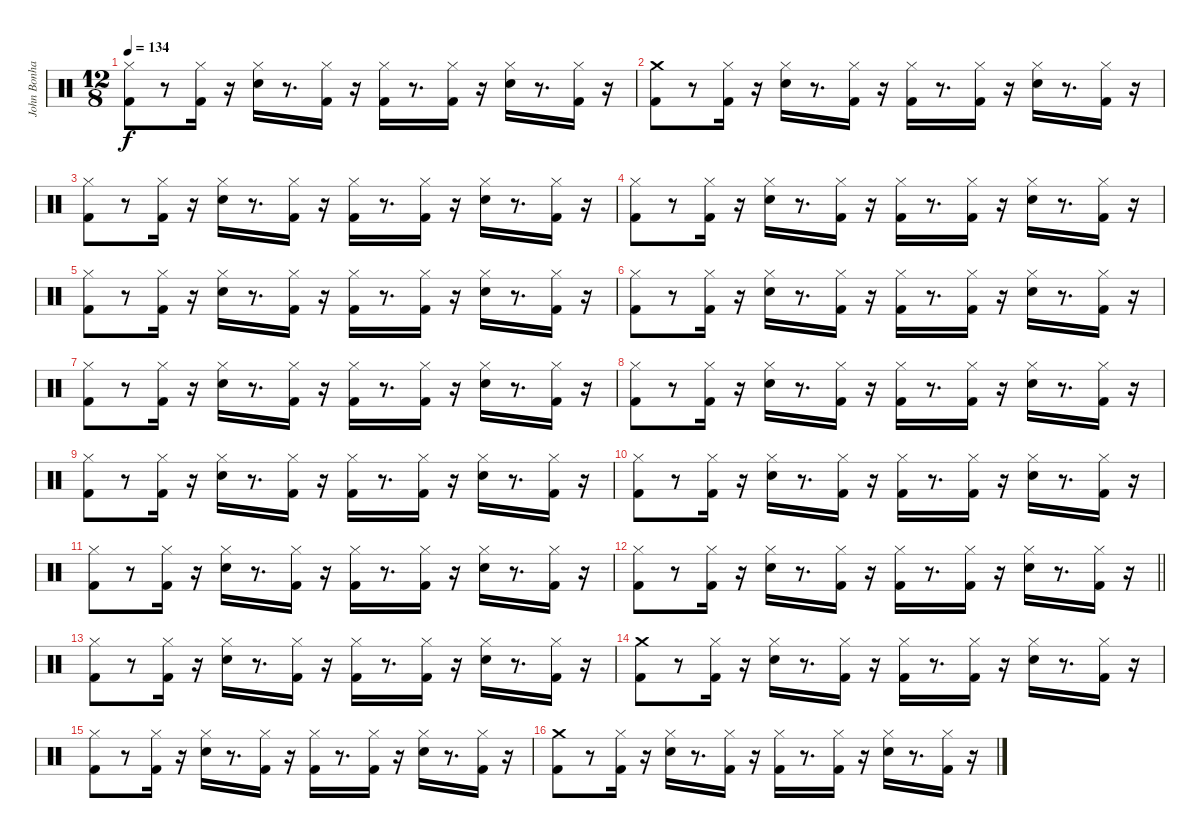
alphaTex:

\track ("John Bonham - Drums" "John Bonha") {instrument percussion}
\staff {score}
\articulation defaults
\ts (12 8)
\tempo 134
\clef neutral
\ks c
("Kick (hit) 2" "Hi-Hat (closed)").8{dy f} r.8 ("Kick (hit) 2" "Hi-Hat (closed)").16 r.16 ("Hi-Hat (closed)" "Electric Snare (hit)").16 r.8{d} ("Hi-Hat (closed)" "Kick (hit) 2").16 r.16 ("Hi-Hat (closed)" "Kick (hit) 2").16 r.8{d} ("Hi-Hat (closed)" "Kick (hit) 2").16 r.16 ("Hi-Hat (closed)" "Electric Snare (hit)").16 r.8{d} ("Hi-Hat (closed)" "Kick (hit) 2").16 r.16 |
("Kick (hit) 2" "Crash medium (hit)").8 r.8 ("Kick (hit) 2" "Hi-Hat (closed)").16 r.16 ("Hi-Hat (closed)" "Electric Snare (hit)").16 r.8{d} ("Hi-Hat (closed)" "Kick (hit) 2").16 r.16 ("Hi-Hat (closed)" "Kick (hit) 2").16 r.8{d} ("Hi-Hat (closed)" "Kick (hit) 2").16 r.16 ("Hi-Hat (closed)" "Electric Snare (hit)").16 r.8{d} ("Hi-Hat (closed)" "Kick (hit) 2").16 r.16 |
("Kick (hit) 2" "Hi-Hat (closed)").8 r.8 ("Kick (hit) 2" "Hi-Hat (closed)").16 r.16 ("Hi-Hat (closed)" "Electric Snare (hit)").16 r.8{d} ("Hi-Hat (closed)" "Kick (hit) 2").16 r.16 ("Hi-Hat (closed)" "Kick (hit) 2").16 r.8{d} ("Hi-Hat (closed)" "Kick (hit) 2").16 r.16 ("Hi-Hat (closed)" "Electric Snare (hit)").16 r.8{d} ("Hi-Hat (closed)" "Kick (hit) 2").16 r.16 |
("Kick (hit) 2" "Hi-Hat (closed)").8 r.8 ("Kick (hit) 2" "Hi-Hat (closed)").16 r.16 ("Hi-Hat (closed)" "Electric Snare (hit)").16 r.8{d} ("Hi-Hat (closed)" "Kick (hit) 2").16 r.16 ("Hi-Hat (closed)" "Kick (hit) 2").16 r.8{d} ("Hi-Hat (closed)" "Kick (hit) 2").16 r.16 ("Hi-Hat (closed)" "Electric Snare (hit)").16 r.8{d} ("Hi-Hat (closed)" "Kick (hit) 2").16 r.16 |
("Kick (hit) 2" "Hi-Hat (closed)").8 r.8 ("Kick (hit) 2" "Hi-Hat (closed)").16 r.16 ("Hi-Hat (closed)" "Electric Snare (hit)").16 r.8{d} ("Hi-Hat (closed)" "Kick (hit) 2").16 r.16 ("Hi-Hat (closed)" "Kick (hit) 2").16 r.8{d} ("Hi-Hat (closed)" "Kick (hit) 2").16 r.16 ("Hi-Hat (closed)" "Electric Snare (hit)").16 r.8{d} ("Hi-Hat (closed)" "Kick (hit) 2").16 r.16 |
("Kick (hit) 2" "Hi-Hat (closed)").8 r.8 ("Kick (hit) 2" "Hi-Hat (closed)").16 r.16 ("Hi-Hat (closed)" "Electric Snare (hit)").16 r.8{d} ("Hi-Hat (closed)" "Kick (hit) 2").16 r.16 ("Hi-Hat (closed)" "Kick (hit) 2").16 r.8{d} ("Hi-Hat (closed)" "Kick (hit) 2").16 r.16 ("Hi-Hat (closed)" "Electric Snare (hit)").16 r.8{d} ("Hi-Hat (closed)" "Kick (hit) 2").16 r.16 |
("Kick (hit) 2" "Hi-Hat (closed)").8 r.8 ("Kick (hit) 2" "Hi-Hat (closed)").16 r.16 ("Hi-Hat (closed)" "Electric Snare (hit)").16 r.8{d} ("Hi-Hat (closed)" "Kick (hit) 2").16 r.16 ("Hi-Hat (closed)" "Kick (hit) 2").16 r.8{d} ("Hi-Hat (closed)" "Kick (hit) 2").16 r.16 ("Hi-Hat (closed)" "Electric Snare (hit)").16 r.8{d} ("Hi-Hat (closed)" "Kick (hit) 2").16 r.16 |
("Kick (hit) 2" "Hi-Hat (closed)").8 r.8 ("Kick (hit) 2" "Hi-Hat (closed)").16 r.16 ("Hi-Hat (closed)" "Electric Snare (hit)").16 r.8{d} ("Hi-Hat (closed)" "Kick (hit) 2").16 r.16 ("Hi-Hat (closed)" "Kick (hit) 2").16 r.8{d} ("Hi-Hat (closed)" "Kick (hit) 2").16 r.16 ("Hi-Hat (closed)" "Electric Snare (hit)").16 r.8{d} ("Hi-Hat (closed)" "Kick (hit) 2").16 r.16 |
("Kick (hit) 2" "Hi-Hat (closed)").8 r.8 ("Kick (hit) 2" "Hi-Hat (closed)").16 r.16 ("Hi-Hat (closed)" "Electric Snare (hit)").16 r.8{d} ("Hi-Hat (closed)" "Kick (hit) 2").16 r.16 ("Hi-Hat (closed)" "Kick (hit) 2").16 r.8{d} ("Hi-Hat (closed)" "Kick (hit) 2").16 r.16 ("Hi-Hat (closed)" "Electric Snare (hit)").16 r.8{d} ("Hi-Hat (closed)" "Kick (hit) 2").16 r.16 |
("Kick (hit) 2" "Hi-Hat (closed)").8 r.8 ("Kick (hit) 2" "Hi-Hat (closed)").16 r.16 ("Hi-Hat (closed)" "Electric Snare (hit)").16 r.8{d} ("Hi-Hat (closed)" "Kick (hit) 2").16 r.16 ("Hi-Hat (closed)" "Kick (hit) 2").16 r.8{d} ("Hi-Hat (closed)" "Kick (hit) 2").16 r.16 ("Hi-Hat (closed)" "Electric Snare (hit)").16 r.8{d} ("Hi-Hat (closed)" "Kick (hit) 2").16 r.16 |
("Kick (hit) 2" "Hi-Hat (closed)").8 r.8 ("Kick (hit) 2" "Hi-Hat (closed)").16 r.16 ("Hi-Hat (closed)" "Electric Snare (hit)").16 r.8{d} ("Hi-Hat (closed)" "Kick (hit) 2").16 r.16 ("Hi-Hat (closed)" "Kick (hit) 2").16 r.8{d} ("Hi-Hat (closed)" "Kick (hit) 2").16 r.16 ("Hi-Hat (closed)" "Electric Snare (hit)").16 r.8{d} ("Hi-Hat (closed)" "Kick (hit) 2").16 r.16 |
\barLineRight lightlight
("Kick (hit) 2" "Hi-Hat (closed)").8 r.8 ("Kick (hit) 2" "Hi-Hat (closed)").16 r.16 ("Hi-Hat (closed)" "Electric Snare (hit)").16 r.8{d} ("Hi-Hat (closed)" "Kick (hit) 2").16 r.16 ("Hi-Hat (closed)" "Kick (hit) 2").16 r.8{d} ("Hi-Hat (closed)" "Kick (hit) 2").16 r.16 ("Hi-Hat (closed)" "Electric Snare (hit)").16 r.8{d} ("Hi-Hat (closed)" "Kick (hit) 2").16 r.16 |
("Kick (hit) 2" "Hi-Hat (closed)").8 r.8 ("Kick (hit) 2" "Hi-Hat (closed)").16 r.16 ("Hi-Hat (closed)" "Electric Snare (hit)").16 r.8{d} ("Hi-Hat (closed)" "Kick (hit) 2").16 r.16 ("Hi-Hat (closed)" "Kick (hit) 2").16 r.8{d} ("Hi-Hat (closed)" "Kick (hit) 2").16 r.16 ("Hi-Hat (closed)" "Electric Snare (hit)").16 r.8{d} ("Hi-Hat (closed)" "Kick (hit) 2").16 r.16 |
("Kick (hit) 2" "Crash medium (hit)").8 r.8 ("Kick (hit) 2" "Hi-Hat (closed)").16 r.16 ("Hi-Hat (closed)" "Electric Snare (hit)").16 r.8{d} ("Hi-Hat (closed)" "Kick (hit) 2").16 r.16 ("Hi-Hat (closed)" "Kick (hit) 2").16 r.8{d} ("Hi-Hat (closed)" "Kick (hit) 2").16 r.16 ("Hi-Hat (closed)" "Electric Snare (hit)").16 r.8{d} ("Hi-Hat (closed)" "Kick (hit) 2").16 r.16 |
("Kick (hit) 2" "Hi-Hat (closed)").8 r.8 ("Kick (hit) 2" "Hi-Hat (closed)").16 r.16 ("Hi-Hat (closed)" "Electric Snare (hit)").16 r.8{d} ("Hi-Hat (closed)" "Kick (hit) 2").16 r.16 ("Hi-Hat (closed)" "Kick (hit) 2").16 r.8{d} ("Hi-Hat (closed)" "Kick (hit) 2").16 r.16 ("Hi-Hat (closed)" "Electric Snare (hit)").16 r.8{d} ("Hi-Hat (closed)" "Kick (hit) 2").16 r.16 |
("Kick (hit) 2" "Crash medium (hit)").8 r.8 ("Kick (hit) 2" "Hi-Hat (closed)").16 r.16 ("Hi-Hat (closed)" "Electric Snare (hit)").16 r.8{d} ("Hi-Hat (closed)" "Kick (hit) 2").16 r.16 ("Hi-Hat (closed)" "Kick (hit) 2").16 r.8{d} ("Hi-Hat (closed)" "Kick (hit) 2").16 r.16 ("Hi-Hat (closed)" "Electric Snare (hit)").16 r.8{d} ("Hi-Hat (closed)" "Kick (hit) 2").16 r.16
